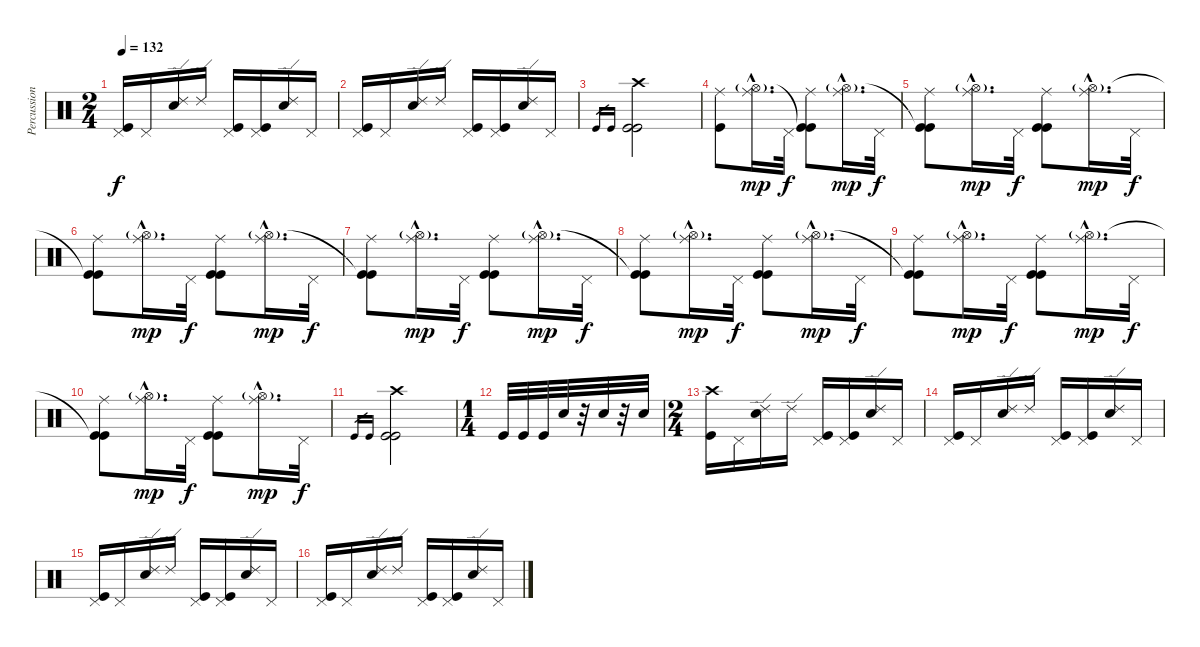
\track ("Percussion" "Percussion") {instrument percussion}
\staff {score}
\articulation defaults
\ts (2 4)
\tempo 132
\clef neutral
\ks c
("Pedal Hi-Hat (hit)" "Kick (hit)").16{dy f} "Pedal Hi-Hat (hit)".16 ("Ride (edge) 2" "Electric Snare (hit)").16 "Ride (edge) 2".16 ("Pedal Hi-Hat (hit)" "Kick (hit)").16 ("Pedal Hi-Hat (hit)" "Kick (hit)").16 ("Ride (edge) 2" "Electric Snare (hit)").16 "Pedal Hi-Hat (hit)".16 |
("Pedal Hi-Hat (hit)" "Kick (hit)").16 "Pedal Hi-Hat (hit)".16 ("Ride (edge) 2" "Electric Snare (hit)").16 "Ride (edge) 2".16 ("Pedal Hi-Hat (hit)" "Kick (hit)").16 ("Pedal Hi-Hat (hit)" "Kick (hit)").16 ("Ride (edge) 2" "Electric Snare (hit)").16 "Pedal Hi-Hat (hit)".16 |
"Kick (hit)".16{gr} "Kick (hit)".16{gr} ("Crash high (hit)" "Kick (hit)" "Kick (hit)").2 |
("Ride (middle)" "Kick (hit)").8 ("Ride (middle)"{hac} "Hi-Hat (open)"{g hac}).16{d dy mp} "Pedal Hi-Hat (hit)".32{dy f} ("Ride (middle)" "Kick (hit)"{t} "Kick (hit)").8 ("Ride (middle)"{hac} "Hi-Hat (open)"{g hac}).16{d dy mp} "Pedal Hi-Hat (hit)".32{dy f} |
("Ride (middle)" "Kick (hit)"{t} "Kick (hit)").8 ("Ride (middle)"{hac} "Hi-Hat (open)"{g hac}).16{d dy mp} "Pedal Hi-Hat (hit)".32{dy f} ("Ride (middle)" "Kick (hit)" "Kick (hit)").8 ("Ride (middle)"{hac} "Hi-Hat (open)"{g hac}).16{d dy mp} "Pedal Hi-Hat (hit)".32{dy f} |
("Ride (middle)" "Kick (hit)"{t} "Kick (hit)").8 ("Ride (middle)"{hac} "Hi-Hat (open)"{g hac}).16{d dy mp} "Pedal Hi-Hat (hit)".32{dy f} ("Ride (middle)" "Kick (hit)" "Kick (hit)").8 ("Ride (middle)"{hac} "Hi-Hat (open)"{g hac}).16{d dy mp} "Pedal Hi-Hat (hit)".32{dy f} |
("Ride (middle)" "Kick (hit)"{t} "Kick (hit)").8 ("Ride (middle)"{hac} "Hi-Hat (open)"{g hac}).16{d dy mp} "Pedal Hi-Hat (hit)".32{dy f} ("Ride (middle)" "Kick (hit)" "Kick (hit)").8 ("Ride (middle)"{hac} "Hi-Hat (open)"{g hac}).16{d dy mp} "Pedal Hi-Hat (hit)".32{dy f} |
("Ride (middle)" "Kick (hit)"{t} "Kick (hit)").8 ("Ride (middle)"{hac} "Hi-Hat (open)"{g hac}).16{d dy mp} "Pedal Hi-Hat (hit)".32{dy f} ("Ride (middle)" "Kick (hit)" "Kick (hit)").8 ("Ride (middle)"{hac} "Hi-Hat (open)"{g hac}).16{d dy mp} "Pedal Hi-Hat (hit)".32{dy f} |
("Ride (middle)" "Kick (hit)"{t} "Kick (hit)").8 ("Ride (middle)"{hac} "Hi-Hat (open)"{g hac}).16{d dy mp} "Pedal Hi-Hat (hit)".32{dy f} ("Ride (middle)" "Kick (hit)" "Kick (hit)").8 ("Ride (middle)"{hac} "Hi-Hat (open)"{g hac}).16{d dy mp} "Pedal Hi-Hat (hit)".32{dy f} |
("Ride (middle)" "Kick (hit)"{t} "Kick (hit)").8 ("Ride (middle)"{hac} "Hi-Hat (open)"{g hac}).16{d dy mp} "Pedal Hi-Hat (hit)".32{dy f} ("Ride (middle)" "Kick (hit)" "Kick (hit)").8 ("Ride (middle)"{hac} "Hi-Hat (open)"{g hac}).16{d dy mp} "Pedal Hi-Hat (hit)".32{dy f} |
"Kick (hit)".16{gr} "Kick (hit)".16{gr} ("Crash high (hit)" "Kick (hit)" "Kick (hit)").2 |
\ts (1 4)
"Kick (hit)".32 "Kick (hit)".32 "Kick (hit)".32 "Electric Snare (hit)".32 r.32 "Electric Snare (hit)".32 r.32 "Electric Snare (hit)".32 |
\ts (2 4)
("Crash high (hit)" "Kick (hit)").16 "Pedal Hi-Hat (hit)".16 ("Ride (edge) 2" "Electric Snare (hit)").16 "Ride (edge) 2".16 ("Pedal Hi-Hat (hit)" "Kick (hit)").16 ("Pedal Hi-Hat (hit)" "Kick (hit)").16 ("Ride (edge) 2" "Electric Snare (hit)").16 "Pedal Hi-Hat (hit)".16 |
("Pedal Hi-Hat (hit)" "Kick (hit)").16 "Pedal Hi-Hat (hit)".16 ("Ride (edge) 2" "Electric Snare (hit)").16 "Ride (edge) 2".16 ("Pedal Hi-Hat (hit)" "Kick (hit)").16 ("Pedal Hi-Hat (hit)" "Kick (hit)").16 ("Ride (edge) 2" "Electric Snare (hit)").16 "Pedal Hi-Hat (hit)".16 |
("Pedal Hi-Hat (hit)" "Kick (hit)").16 "Pedal Hi-Hat (hit)".16 ("Ride (edge) 2" "Electric Snare (hit)").16 "Ride (edge) 2".16 ("Pedal Hi-Hat (hit)" "Kick (hit)").16 ("Pedal Hi-Hat (hit)" "Kick (hit)").16 ("Ride (edge) 2" "Electric Snare (hit)").16 "Pedal Hi-Hat (hit)".16 |
("Pedal Hi-Hat (hit)" "Kick (hit)").16 "Pedal Hi-Hat (hit)".16 ("Ride (edge) 2" "Electric Snare (hit)").16 "Ride (edge) 2".16 ("Pedal Hi-Hat (hit)" "Kick (hit)").16 ("Pedal Hi-Hat (hit)" "Kick (hit)").16 ("Ride (edge) 2" "Electric Snare (hit)").16 "Pedal Hi-Hat (hit)".16
